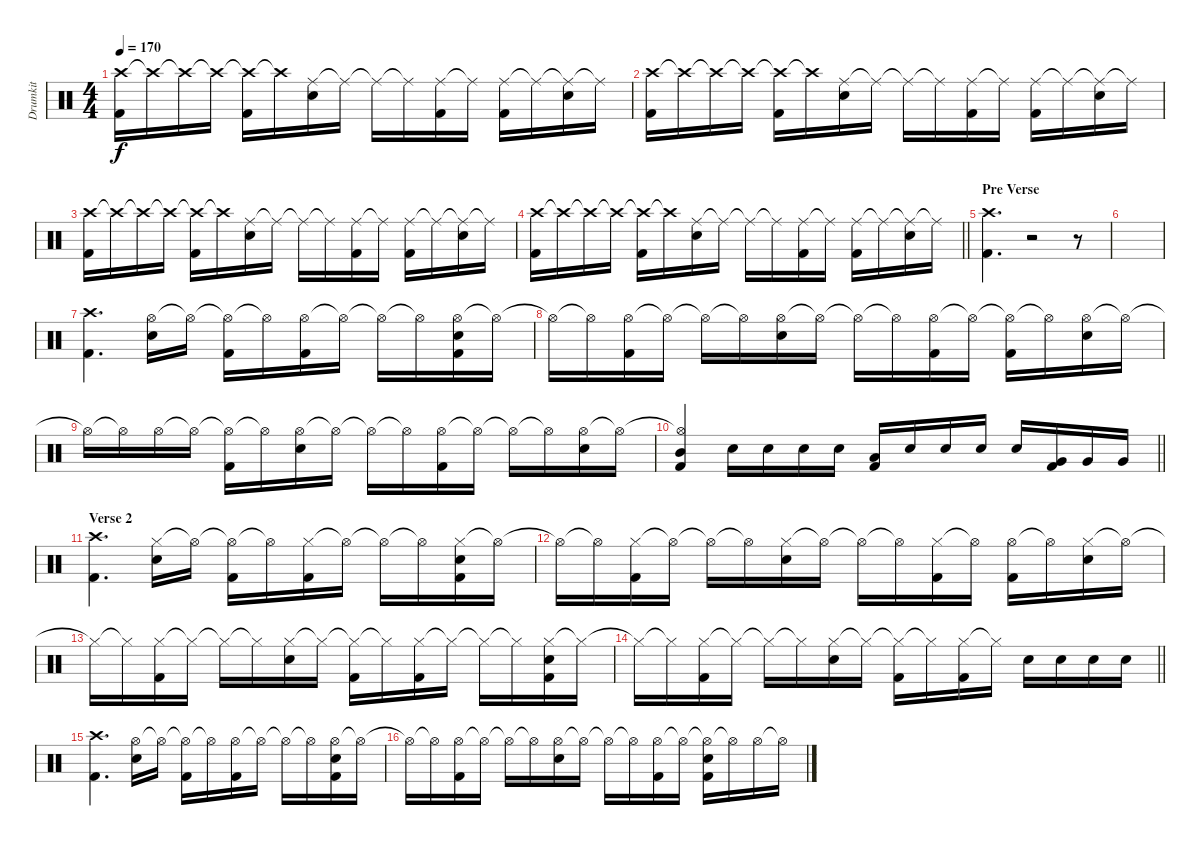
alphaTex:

\track ("Drumkit" "Drumkit") {instrument percussion}
\staff {score}
\articulation defaults
\ts (4 4)
\tempo 170
\clef neutral
\ks c
("Crash high (hit)" "Kick (hit) 2").16{dy f} "Crash high (hit)"{t}.16 "Crash high (hit)"{t}.16 "Crash high (hit)"{t}.16 ("Crash high (hit)"{t} "Kick (hit) 2").16 "Crash high (hit)"{t}.16 ("Ride (middle)" "Snare (hit) 2").16 "Ride (middle)"{t}.16 "Ride (middle)"{t}.16 "Ride (middle)"{t}.16 ("Ride (middle)" "Kick (hit) 2").16 "Ride (middle)"{t}.16 ("Ride (middle)" "Kick (hit) 2").16 "Ride (middle)"{t}.16 ("Ride (middle)"{t} "Snare (hit) 2").16 "Ride (middle)"{t}.16 |
("Crash high (hit)" "Kick (hit) 2").16 "Crash high (hit)"{t}.16 "Crash high (hit)"{t}.16 "Crash high (hit)"{t}.16 ("Crash high (hit)"{t} "Kick (hit) 2").16 "Crash high (hit)"{t}.16 ("Ride (middle)" "Snare (hit) 2").16 "Ride (middle)"{t}.16 "Ride (middle)"{t}.16 "Ride (middle)"{t}.16 ("Ride (middle)" "Kick (hit) 2").16 "Ride (middle)"{t}.16 ("Ride (middle)" "Kick (hit) 2").16 "Ride (middle)"{t}.16 ("Ride (middle)"{t} "Snare (hit) 2").16 "Ride (middle)"{t}.16 |
("Crash high (hit)" "Kick (hit) 2").16 "Crash high (hit)"{t}.16 "Crash high (hit)"{t}.16 "Crash high (hit)"{t}.16 ("Crash high (hit)"{t} "Kick (hit) 2").16 "Crash high (hit)"{t}.16 ("Ride (middle)" "Snare (hit) 2").16 "Ride (middle)"{t}.16 "Ride (middle)"{t}.16 "Ride (middle)"{t}.16 ("Ride (middle)" "Kick (hit) 2").16 "Ride (middle)"{t}.16 ("Ride (middle)" "Kick (hit) 2").16 "Ride (middle)"{t}.16 ("Ride (middle)"{t} "Snare (hit) 2").16 "Ride (middle)"{t}.16 |
\barLineRight lightlight
("Crash high (hit)" "Kick (hit) 2").16 "Crash high (hit)"{t}.16 "Crash high (hit)"{t}.16 "Crash high (hit)"{t}.16 ("Crash high (hit)"{t} "Kick (hit) 2").16 "Crash high (hit)"{t}.16 ("Ride (middle)" "Snare (hit) 2").16 "Ride (middle)"{t}.16 "Ride (middle)"{t}.16 "Ride (middle)"{t}.16 ("Ride (middle)" "Kick (hit) 2").16 "Ride (middle)"{t}.16 ("Ride (middle)" "Kick (hit) 2").16 "Ride (middle)"{t}.16 ("Ride (middle)"{t} "Snare (hit) 2").16 "Ride (middle)"{t}.16 |
\section ("" "Pre Verse")
("Crash high (hit)" "Kick (hit) 2").4{d} r.2 r.8 |
|
("Crash high (hit)" "Kick (hit) 2").4{d} ("Hi-Hat (open)" "Snare (hit) 2").16 "Hi-Hat (open)"{t}.16 ("Hi-Hat (open)"{t} "Kick (hit) 2").16 "Hi-Hat (open)"{t}.16 ("Hi-Hat (open)" "Kick (hit) 2").16 "Hi-Hat (open)"{t}.16 "Hi-Hat (open)"{t}.16 "Hi-Hat (open)"{t}.16 ("Hi-Hat (open)" "Snare (hit) 2" "Kick (hit) 2").16 "Hi-Hat (open)"{t}.16 |
"Hi-Hat (open)"{t}.16 "Hi-Hat (open)"{t}.16 ("Hi-Hat (open)" "Kick (hit) 2").16 "Hi-Hat (open)"{t}.16 "Hi-Hat (open)"{t}.16 "Hi-Hat (open)"{t}.16 ("Hi-Hat (open)" "Snare (hit) 2").16 "Hi-Hat (open)"{t}.16 "Hi-Hat (open)"{t}.16 "Hi-Hat (open)"{t}.16 ("Hi-Hat (open)" "Kick (hit) 2").16 "Hi-Hat (open)"{t}.16 ("Hi-Hat (open)"{t} "Kick (hit) 2").16 "Hi-Hat (open)"{t}.16 ("Hi-Hat (open)" "Snare (hit) 2").16 "Hi-Hat (open)"{t}.16 |
"Hi-Hat (open)"{t}.16 "Hi-Hat (open)"{t}.16 "Hi-Hat (open)".16 "Hi-Hat (open)"{t}.16 ("Hi-Hat (open)"{t} "Kick (hit) 2").16 "Hi-Hat (open)"{t}.16 ("Hi-Hat (open)" "Snare (hit) 2").16 "Hi-Hat (open)"{t}.16 "Hi-Hat (open)"{t}.16 "Hi-Hat (open)"{t}.16 ("Hi-Hat (open)" "Kick (hit) 2").16 "Hi-Hat (open)"{t}.16 "Hi-Hat (open)"{t}.16 "Hi-Hat (open)"{t}.16 ("Hi-Hat (open)" "Snare (hit) 2").16 "Hi-Hat (open)"{t}.16 |
\barLineRight lightlight
("Hi-Hat (open)"{t} "Mid Tom (hit)" "Kick (hit) 2").4 "Snare (hit) 2".16 "Snare (hit) 2".16 "Snare (hit) 2".16 "Snare (hit) 2".16 ("Low Tom (hit)" "Kick (hit) 2").16 "Snare (hit) 2".16 "Snare (hit) 2".16 "Snare (hit) 2".16 "Snare (hit) 2".16 ("Very Low Tom (hit)" "Kick (hit) 2").16 "Very Low Tom (hit)".16 "Very Low Tom (hit)".16 |
\section ("" "Verse 2")
("Crash high (hit)" "Kick (hit) 2").4{d} ("Hi-Hat (closed)" "Snare (hit) 2").16 "Hi-Hat (open)"{t}.16 ("Hi-Hat (open)"{t} "Kick (hit) 2").16 "Hi-Hat (open)"{t}.16 ("Hi-Hat (closed)" "Kick (hit) 2").16 "Hi-Hat (open)"{t}.16 "Hi-Hat (open)"{t}.16 "Hi-Hat (open)"{t}.16 ("Hi-Hat (closed)" "Snare (hit) 2" "Kick (hit) 2").16 "Hi-Hat (open)"{t}.16 |
"Hi-Hat (open)"{t}.16 "Hi-Hat (open)"{t}.16 ("Hi-Hat (closed)" "Kick (hit) 2").16 "Hi-Hat (open)"{t}.16 "Hi-Hat (open)"{t}.16 "Hi-Hat (open)"{t}.16 ("Hi-Hat (closed)" "Snare (hit) 2").16 "Hi-Hat (open)"{t}.16 "Hi-Hat (open)"{t}.16 "Hi-Hat (open)"{t}.16 ("Hi-Hat (closed)" "Kick (hit) 2").16 "Hi-Hat (open)"{t}.16 ("Hi-Hat (open)" "Kick (hit) 2").16 "Hi-Hat (open)"{t}.16 ("Hi-Hat (closed)" "Snare (hit) 2").16 "Hi-Hat (open)"{t}.16 |
"Hi-Hat (closed)"{t}.16 "Hi-Hat (closed)"{t}.16 ("Hi-Hat (closed)" "Kick (hit) 2").16 "Hi-Hat (closed)"{t}.16 "Hi-Hat (closed)"{t}.16 "Hi-Hat (closed)"{t}.16 ("Hi-Hat (closed)" "Snare (hit) 2").16 "Hi-Hat (closed)"{t}.16 ("Hi-Hat (closed)"{t} "Kick (hit) 2").16 "Hi-Hat (closed)"{t}.16 ("Hi-Hat (closed)" "Kick (hit) 2").16 "Hi-Hat (closed)"{t}.16 "Hi-Hat (closed)"{t}.16 "Hi-Hat (closed)"{t}.16 ("Hi-Hat (closed)" "Snare (hit) 2" "Kick (hit) 2").16 "Hi-Hat (closed)"{t}.16 |
\barLineRight lightlight "Hi-Hat (closed)"{t}.16 "Hi-Hat (closed)"{t}.16
("Hi-Hat (closed)" "Kick (hit) 2").16 "Hi-Hat (closed)"{t}.16 "Hi-Hat (closed)"{t}.16 "Hi-Hat (closed)"{t}.16 ("Hi-Hat (closed)" "Snare (hit) 2").16 "Hi-Hat (closed)"{t}.16 ("Hi-Hat (closed)"{t} "Kick (hit) 2").16 "Hi-Hat (closed)"{t}.16 ("Hi-Hat (closed)" "Kick (hit) 2").16 "Hi-Hat (closed)"{t}.16 "Snare (hit) 2".16 "Snare (hit) 2".16 "Snare (hit) 2".16 "Snare (hit) 2".16 |
("Crash high (hit)" "Kick (hit) 2").4{d} ("Hi-Hat (open)" "Snare (hit) 2").16 "Hi-Hat (open)"{t}.16 ("Hi-Hat (open)"{t} "Kick (hit) 2").16 "Hi-Hat (open)"{t}.16 ("Hi-Hat (open)" "Kick (hit) 2").16 "Hi-Hat (open)"{t}.16 "Hi-Hat (open)"{t}.16 "Hi-Hat (open)"{t}.16 ("Hi-Hat (open)" "Snare (hit) 2" "Kick (hit) 2").16 "Hi-Hat (open)"{t}.16 |
"Hi-Hat (open)"{t}.16 "Hi-Hat (open)"{t}.16 ("Hi-Hat (open)" "Kick (hit) 2").16 "Hi-Hat (open)"{t}.16 "Hi-Hat (open)"{t}.16 "Hi-Hat (open)"{t}.16 ("Hi-Hat (open)" "Snare (hit) 2").16 "Hi-Hat (open)"{t}.16 "Hi-Hat (open)"{t}.16 "Hi-Hat (open)"{t}.16 ("Hi-Hat (open)" "Kick (hit) 2").16 "Hi-Hat (open)"{t}.16 ("Hi-Hat (open)"{t} "Snare (hit) 2" "Kick (hit) 2").16 "Hi-Hat (open)"{t}.16 "Hi-Hat (open)".16 "Hi-Hat (open)"{t}.16
